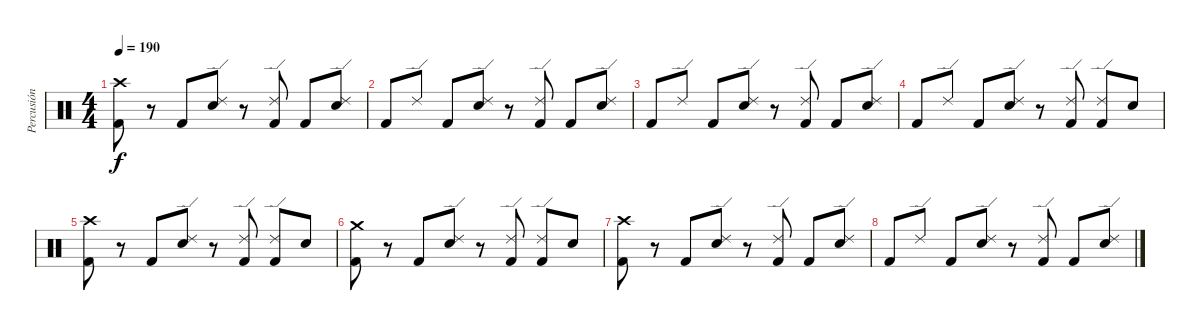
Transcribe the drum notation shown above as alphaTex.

\track ("Percusión" "Percusión") {instrument percussion}
\staff {score}
\articulation defaults
\ts (4 4)
\tempo 190
\clef neutral
\ks c
("Crash high (hit)" "Kick (hit) 2").8{dy f volume 5} r.8 "Kick (hit) 2".8 ("Ride (edge) 2" "Snare (hit) 2").8 r.8 ("Ride (edge) 2" "Kick (hit) 2").8 "Kick (hit) 2".8 ("Ride (edge) 2" "Snare (hit) 2").8 |
"Kick (hit) 2".8 "Ride (edge) 2".8 "Kick (hit) 2".8 ("Ride (edge) 2" "Snare (hit) 2").8 r.8 ("Ride (edge) 2" "Kick (hit) 2").8 "Kick (hit) 2".8 ("Ride (edge) 2" "Snare (hit) 2").8 |
"Kick (hit) 2".8 "Ride (edge) 2".8 "Kick (hit) 2".8 ("Ride (edge) 2" "Snare (hit) 2").8 r.8 ("Ride (edge) 2" "Kick (hit) 2").8 "Kick (hit) 2".8 ("Ride (edge) 2" "Snare (hit) 2").8 |
"Kick (hit) 2".8 "Ride (edge) 2".8 "Kick (hit) 2".8 ("Ride (edge) 2" "Snare (hit) 2").8 r.8 ("Ride (edge) 2" "Kick (hit) 2").8 ("Ride (edge) 2" "Kick (hit) 2").8 "Snare (hit) 2".8 |
("Crash high (hit)" "Kick (hit) 2").8{volume 3} r.8 "Kick (hit) 2".8 ("Ride (edge) 2" "Snare (hit) 2").8 r.8 ("Ride (edge) 2" "Kick (hit) 2").8 ("Ride (edge) 2" "Kick (hit) 2").8 "Snare (hit) 2".8 |
("Crash medium (hit)" "Kick (hit) 2").8 r.8 "Kick (hit) 2".8 ("Ride (edge) 2" "Snare (hit) 2").8 r.8 ("Ride (edge) 2" "Kick (hit) 2").8 ("Ride (edge) 2" "Kick (hit) 2").8 "Snare (hit) 2".8 |
("Crash high (hit)" "Kick (hit) 2").8{volume 1} r.8 "Kick (hit) 2".8 ("Ride (edge) 2" "Snare (hit) 2").8 r.8 ("Ride (edge) 2" "Kick (hit) 2").8 "Kick (hit) 2".8 ("Ride (edge) 2" "Snare (hit) 2").8 |
"Kick (hit) 2".8 "Ride (edge) 2".8 "Kick (hit) 2".8 ("Ride (edge) 2" "Snare (hit) 2").8 r.8 ("Ride (edge) 2" "Kick (hit) 2").8 "Kick (hit) 2".8 ("Ride (edge) 2" "Snare (hit) 2").8
